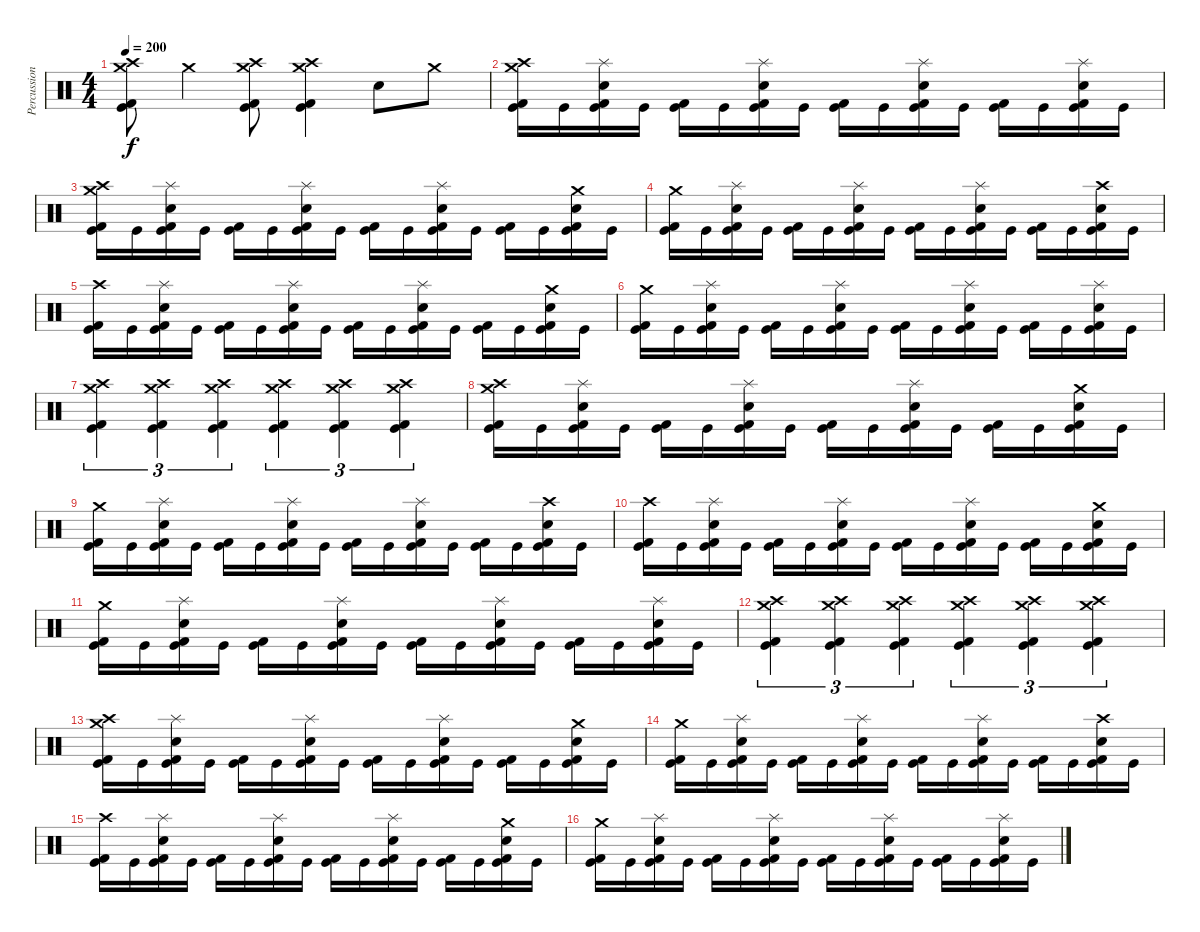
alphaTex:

\track ("Percussion" "Percussion") {instrument percussion}
\staff {score}
\articulation defaults
\ts (4 4)
\tempo 200
\clef neutral
\ks c
("Crash high (hit)" "Crash medium (hit)" "Kick (hit) 2" "Kick (hit)").8{dy f} "Crash medium (hit)".4 ("Crash high (hit)" "Crash medium (hit)" "Kick (hit) 2" "Kick (hit)").8 ("Crash high (hit)" "Crash medium (hit)" "Kick (hit) 2" "Kick (hit)").4 "Snare (hit) 2".8 "Crash medium (hit)".8 |
("Crash high (hit)" "Crash medium (hit)" "Kick (hit) 2" "Kick (hit)").16 "Kick (hit)".16 ("Splash (hit)" "Snare (hit) 2" "Kick (hit) 2" "Kick (hit)").16 "Kick (hit)".16 ("Kick (hit) 2" "Kick (hit)").16 "Kick (hit)".16 ("Splash (hit)" "Snare (hit) 2" "Kick (hit) 2" "Kick (hit)").16 "Kick (hit)".16 ("Kick (hit) 2" "Kick (hit)").16 "Kick (hit)".16 ("Splash (hit)" "Snare (hit) 2" "Kick (hit) 2" "Kick (hit)").16 "Kick (hit)".16 ("Kick (hit) 2" "Kick (hit)").16 "Kick (hit)".16 ("Splash (hit)" "Snare (hit) 2" "Kick (hit) 2" "Kick (hit)").16 "Kick (hit)".16 |
("Crash high (hit)" "Crash medium (hit)" "Kick (hit) 2" "Kick (hit)").16 "Kick (hit)".16 ("Splash (hit)" "Snare (hit) 2" "Kick (hit) 2" "Kick (hit)").16 "Kick (hit)".16 ("Kick (hit) 2" "Kick (hit)").16 "Kick (hit)".16 ("Splash (hit)" "Snare (hit) 2" "Kick (hit) 2" "Kick (hit)").16 "Kick (hit)".16 ("Kick (hit) 2" "Kick (hit)").16 "Kick (hit)".16 ("Splash (hit)" "Snare (hit) 2" "Kick (hit) 2" "Kick (hit)").16 "Kick (hit)".16 ("Kick (hit) 2" "Kick (hit)").16 "Kick (hit)".16 ("Crash medium (hit)" "Snare (hit) 2" "Kick (hit) 2" "Kick (hit)").16 "Kick (hit)".16 |
("Crash medium (hit)" "Kick (hit) 2" "Kick (hit)").16 "Kick (hit)".16 ("Splash (hit)" "Snare (hit) 2" "Kick (hit) 2" "Kick (hit)").16 "Kick (hit)".16 ("Kick (hit) 2" "Kick (hit)").16 "Kick (hit)".16 ("Splash (hit)" "Snare (hit) 2" "Kick (hit) 2" "Kick (hit)").16 "Kick (hit)".16 ("Kick (hit) 2" "Kick (hit)").16 "Kick (hit)".16 ("Splash (hit)" "Snare (hit) 2" "Kick (hit) 2" "Kick (hit)").16 "Kick (hit)".16 ("Kick (hit) 2" "Kick (hit)").16 "Kick (hit)".16 ("Crash high (hit)" "Snare (hit) 2" "Kick (hit) 2" "Kick (hit)").16 "Kick (hit)".16 |
("Crash high (hit)" "Kick (hit) 2" "Kick (hit)").16 "Kick (hit)".16 ("Splash (hit)" "Snare (hit) 2" "Kick (hit) 2" "Kick (hit)").16 "Kick (hit)".16 ("Kick (hit) 2" "Kick (hit)").16 "Kick (hit)".16 ("Splash (hit)" "Snare (hit) 2" "Kick (hit) 2" "Kick (hit)").16 "Kick (hit)".16 ("Kick (hit) 2" "Kick (hit)").16 "Kick (hit)".16 ("Splash (hit)" "Snare (hit) 2" "Kick (hit) 2" "Kick (hit)").16 "Kick (hit)".16 ("Kick (hit) 2" "Kick (hit)").16 "Kick (hit)".16 ("Crash medium (hit)" "Snare (hit) 2" "Kick (hit) 2" "Kick (hit)").16 "Kick (hit)".16 |
("Crash medium (hit)" "Kick (hit) 2" "Kick (hit)").16 "Kick (hit)".16 ("Splash (hit)" "Snare (hit) 2" "Kick (hit) 2" "Kick (hit)").16 "Kick (hit)".16 ("Kick (hit) 2" "Kick (hit)").16 "Kick (hit)".16 ("Splash (hit)" "Snare (hit) 2" "Kick (hit) 2" "Kick (hit)").16 "Kick (hit)".16 ("Kick (hit) 2" "Kick (hit)").16 "Kick (hit)".16 ("Splash (hit)" "Snare (hit) 2" "Kick (hit) 2" "Kick (hit)").16 "Kick (hit)".16 ("Kick (hit) 2" "Kick (hit)").16 "Kick (hit)".16 ("Splash (hit)" "Snare (hit) 2" "Kick (hit) 2" "Kick (hit)").16 "Kick (hit)".16 |
("Crash high (hit)" "Crash medium (hit)" "Kick (hit) 2" "Kick (hit)").4{tu (3 2)} ("Crash high (hit)" "Crash medium (hit)" "Kick (hit) 2" "Kick (hit)").4{tu (3 2)} ("Crash high (hit)" "Crash medium (hit)" "Kick (hit) 2" "Kick (hit)").4{tu (3 2)} ("Crash high (hit)" "Crash medium (hit)" "Kick (hit) 2" "Kick (hit)").4{tu (3 2)} ("Crash high (hit)" "Crash medium (hit)" "Kick (hit) 2" "Kick (hit)").4{tu (3 2)} ("Crash high (hit)" "Crash medium (hit)" "Kick (hit) 2" "Kick (hit)").4{tu (3 2)} |
("Crash high (hit)" "Crash medium (hit)" "Kick (hit) 2" "Kick (hit)").16 "Kick (hit)".16 ("Splash (hit)" "Snare (hit) 2" "Kick (hit) 2" "Kick (hit)").16 "Kick (hit)".16 ("Kick (hit) 2" "Kick (hit)").16 "Kick (hit)".16 ("Splash (hit)" "Snare (hit) 2" "Kick (hit) 2" "Kick (hit)").16 "Kick (hit)".16 ("Kick (hit) 2" "Kick (hit)").16 "Kick (hit)".16 ("Splash (hit)" "Snare (hit) 2" "Kick (hit) 2" "Kick (hit)").16 "Kick (hit)".16 ("Kick (hit) 2" "Kick (hit)").16 "Kick (hit)".16 ("Crash medium (hit)" "Snare (hit) 2" "Kick (hit) 2" "Kick (hit)").16 "Kick (hit)".16 |
("Crash medium (hit)" "Kick (hit) 2" "Kick (hit)").16 "Kick (hit)".16 ("Splash (hit)" "Snare (hit) 2" "Kick (hit) 2" "Kick (hit)").16 "Kick (hit)".16 ("Kick (hit) 2" "Kick (hit)").16 "Kick (hit)".16 ("Splash (hit)" "Snare (hit) 2" "Kick (hit) 2" "Kick (hit)").16 "Kick (hit)".16 ("Kick (hit) 2" "Kick (hit)").16 "Kick (hit)".16 ("Splash (hit)" "Snare (hit) 2" "Kick (hit) 2" "Kick (hit)").16 "Kick (hit)".16 ("Kick (hit) 2" "Kick (hit)").16 "Kick (hit)".16 ("Crash high (hit)" "Snare (hit) 2" "Kick (hit) 2" "Kick (hit)").16 "Kick (hit)".16 |
("Crash high (hit)" "Kick (hit) 2" "Kick (hit)").16 "Kick (hit)".16 ("Splash (hit)" "Snare (hit) 2" "Kick (hit) 2" "Kick (hit)").16 "Kick (hit)".16 ("Kick (hit) 2" "Kick (hit)").16 "Kick (hit)".16 ("Splash (hit)" "Snare (hit) 2" "Kick (hit) 2" "Kick (hit)").16 "Kick (hit)".16 ("Kick (hit) 2" "Kick (hit)").16 "Kick (hit)".16 ("Splash (hit)" "Snare (hit) 2" "Kick (hit) 2" "Kick (hit)").16 "Kick (hit)".16 ("Kick (hit) 2" "Kick (hit)").16 "Kick (hit)".16 ("Crash medium (hit)" "Snare (hit) 2" "Kick (hit) 2" "Kick (hit)").16 "Kick (hit)".16 |
("Crash medium (hit)" "Kick (hit) 2" "Kick (hit)").16 "Kick (hit)".16 ("Splash (hit)" "Snare (hit) 2" "Kick (hit) 2" "Kick (hit)").16 "Kick (hit)".16 ("Kick (hit) 2" "Kick (hit)").16 "Kick (hit)".16 ("Splash (hit)" "Snare (hit) 2" "Kick (hit) 2" "Kick (hit)").16 "Kick (hit)".16 ("Kick (hit) 2" "Kick (hit)").16 "Kick (hit)".16 ("Splash (hit)" "Snare (hit) 2" "Kick (hit) 2" "Kick (hit)").16 "Kick (hit)".16 ("Kick (hit) 2" "Kick (hit)").16 "Kick (hit)".16 ("Splash (hit)" "Snare (hit) 2" "Kick (hit) 2" "Kick (hit)").16 "Kick (hit)".16 |
("Crash high (hit)" "Crash medium (hit)" "Kick (hit) 2" "Kick (hit)").4{tu (3 2)} ("Crash high (hit)" "Crash medium (hit)" "Kick (hit) 2" "Kick (hit)").4{tu (3 2)} ("Crash high (hit)" "Crash medium (hit)" "Kick (hit) 2" "Kick (hit)").4{tu (3 2)} ("Crash high (hit)" "Crash medium (hit)" "Kick (hit) 2" "Kick (hit)").4{tu (3 2)} ("Crash high (hit)" "Crash medium (hit)" "Kick (hit) 2" "Kick (hit)").4{tu (3 2)} ("Crash high (hit)" "Crash medium (hit)" "Kick (hit) 2" "Kick (hit)").4{tu (3 2)} |
("Crash high (hit)" "Crash medium (hit)" "Kick (hit) 2" "Kick (hit)").16 "Kick (hit)".16 ("Splash (hit)" "Snare (hit) 2" "Kick (hit) 2" "Kick (hit)").16 "Kick (hit)".16 ("Kick (hit) 2" "Kick (hit)").16 "Kick (hit)".16 ("Splash (hit)" "Snare (hit) 2" "Kick (hit) 2" "Kick (hit)").16 "Kick (hit)".16 ("Kick (hit) 2" "Kick (hit)").16 "Kick (hit)".16 ("Splash (hit)" "Snare (hit) 2" "Kick (hit) 2" "Kick (hit)").16 "Kick (hit)".16 ("Kick (hit) 2" "Kick (hit)").16 "Kick (hit)".16 ("Crash medium (hit)" "Snare (hit) 2" "Kick (hit) 2" "Kick (hit)").16 "Kick (hit)".16 |
("Crash medium (hit)" "Kick (hit) 2" "Kick (hit)").16 "Kick (hit)".16 ("Splash (hit)" "Snare (hit) 2" "Kick (hit) 2" "Kick (hit)").16 "Kick (hit)".16 ("Kick (hit) 2" "Kick (hit)").16 "Kick (hit)".16 ("Splash (hit)" "Snare (hit) 2" "Kick (hit) 2" "Kick (hit)").16 "Kick (hit)".16 ("Kick (hit) 2" "Kick (hit)").16 "Kick (hit)".16 ("Splash (hit)" "Snare (hit) 2" "Kick (hit) 2" "Kick (hit)").16 "Kick (hit)".16 ("Kick (hit) 2" "Kick (hit)").16 "Kick (hit)".16 ("Crash high (hit)" "Snare (hit) 2" "Kick (hit) 2" "Kick (hit)").16 "Kick (hit)".16 |
("Crash high (hit)" "Kick (hit) 2" "Kick (hit)").16 "Kick (hit)".16 ("Splash (hit)" "Snare (hit) 2" "Kick (hit) 2" "Kick (hit)").16 "Kick (hit)".16 ("Kick (hit) 2" "Kick (hit)").16 "Kick (hit)".16 ("Splash (hit)" "Snare (hit) 2" "Kick (hit) 2" "Kick (hit)").16 "Kick (hit)".16 ("Kick (hit) 2" "Kick (hit)").16 "Kick (hit)".16 ("Splash (hit)" "Snare (hit) 2" "Kick (hit) 2" "Kick (hit)").16 "Kick (hit)".16 ("Kick (hit) 2" "Kick (hit)").16 "Kick (hit)".16 ("Crash medium (hit)" "Snare (hit) 2" "Kick (hit) 2" "Kick (hit)").16 "Kick (hit)".16 |
("Crash medium (hit)" "Kick (hit) 2" "Kick (hit)").16 "Kick (hit)".16 ("Splash (hit)" "Snare (hit) 2" "Kick (hit) 2" "Kick (hit)").16 "Kick (hit)".16 ("Kick (hit) 2" "Kick (hit)").16 "Kick (hit)".16 ("Splash (hit)" "Snare (hit) 2" "Kick (hit) 2" "Kick (hit)").16 "Kick (hit)".16 ("Kick (hit) 2" "Kick (hit)").16 "Kick (hit)".16 ("Splash (hit)" "Snare (hit) 2" "Kick (hit) 2" "Kick (hit)").16 "Kick (hit)".16 ("Kick (hit) 2" "Kick (hit)").16 "Kick (hit)".16 ("Splash (hit)" "Snare (hit) 2" "Kick (hit) 2" "Kick (hit)").16 "Kick (hit)".16
